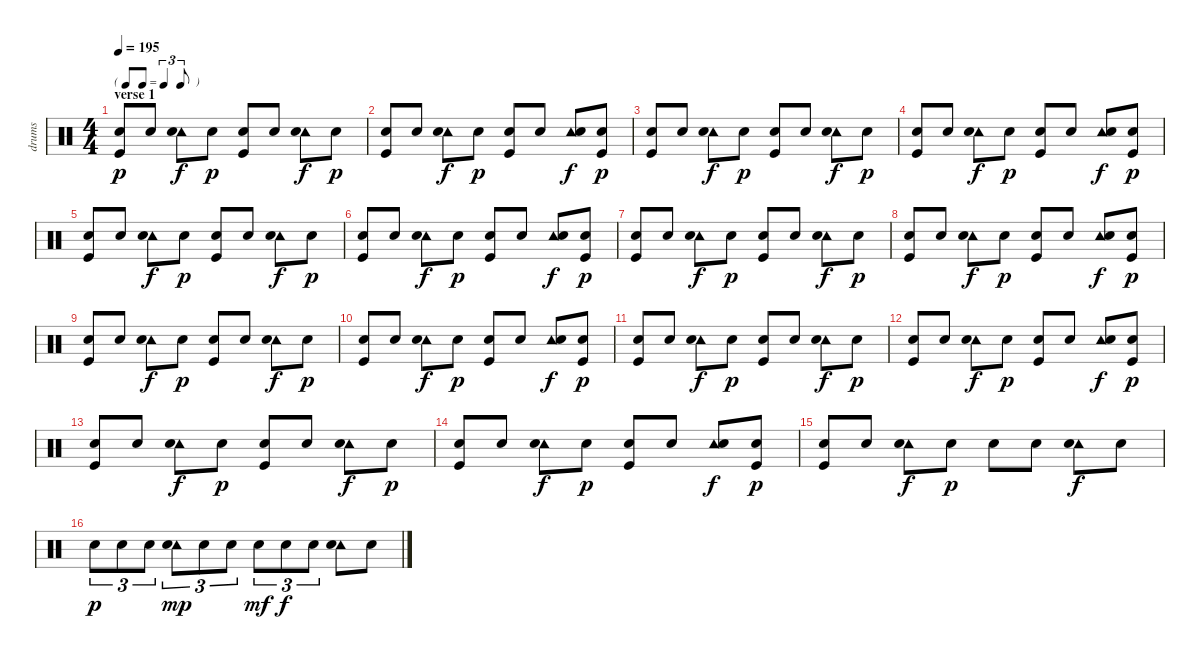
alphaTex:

\track ("drums" "drums") {instrument percussion}
\staff {score}
\articulation defaults
\ts (4 4)
\tf triplet8th
\section ("" "verse 1")
\tempo 195
\clef neutral
\ks c
("Snare (hit) 2" "Kick (hit)").8{dy p} "Snare (hit) 2".8 ("Tambourine (hit)" "Snare (hit) 2").8{dy f} "Snare (hit) 2".8{dy p} ("Snare (hit) 2" "Kick (hit)").8 "Snare (hit) 2".8 ("Tambourine (hit)" "Snare (hit) 2").8{dy f} "Snare (hit) 2".8{dy p} |
("Snare (hit) 2" "Kick (hit)").8 "Snare (hit) 2".8 ("Tambourine (hit)" "Snare (hit) 2").8{dy f} "Snare (hit) 2".8{dy p} ("Snare (hit) 2" "Kick (hit)").8 "Snare (hit) 2".8 ("Tambourine (hit)" "Snare (hit) 2").8{dy f} ("Snare (hit) 2" "Kick (hit)").8{dy p} |
("Snare (hit) 2" "Kick (hit)").8 "Snare (hit) 2".8 ("Tambourine (hit)" "Snare (hit) 2").8{dy f} "Snare (hit) 2".8{dy p} ("Snare (hit) 2" "Kick (hit)").8 "Snare (hit) 2".8 ("Tambourine (hit)" "Snare (hit) 2").8{dy f} "Snare (hit) 2".8{dy p} |
("Snare (hit) 2" "Kick (hit)").8 "Snare (hit) 2".8 ("Tambourine (hit)" "Snare (hit) 2").8{dy f} "Snare (hit) 2".8{dy p} ("Snare (hit) 2" "Kick (hit)").8 "Snare (hit) 2".8 ("Tambourine (hit)" "Snare (hit) 2").8{dy f} ("Snare (hit) 2" "Kick (hit)").8{dy p} |
("Snare (hit) 2" "Kick (hit)").8 "Snare (hit) 2".8 ("Tambourine (hit)" "Snare (hit) 2").8{dy f} "Snare (hit) 2".8{dy p} ("Snare (hit) 2" "Kick (hit)").8 "Snare (hit) 2".8 ("Tambourine (hit)" "Snare (hit) 2").8{dy f} "Snare (hit) 2".8{dy p} |
("Snare (hit) 2" "Kick (hit)").8 "Snare (hit) 2".8 ("Tambourine (hit)" "Snare (hit) 2").8{dy f} "Snare (hit) 2".8{dy p} ("Snare (hit) 2" "Kick (hit)").8 "Snare (hit) 2".8 ("Tambourine (hit)" "Snare (hit) 2").8{dy f} ("Snare (hit) 2" "Kick (hit)").8{dy p} |
("Snare (hit) 2" "Kick (hit)").8 "Snare (hit) 2".8 ("Tambourine (hit)" "Snare (hit) 2").8{dy f} "Snare (hit) 2".8{dy p} ("Snare (hit) 2" "Kick (hit)").8 "Snare (hit) 2".8 ("Tambourine (hit)" "Snare (hit) 2").8{dy f} "Snare (hit) 2".8{dy p} |
("Snare (hit) 2" "Kick (hit)").8 "Snare (hit) 2".8 ("Tambourine (hit)" "Snare (hit) 2").8{dy f} "Snare (hit) 2".8{dy p} ("Snare (hit) 2" "Kick (hit)").8 "Snare (hit) 2".8 ("Tambourine (hit)" "Snare (hit) 2").8{dy f} ("Snare (hit) 2" "Kick (hit)").8{dy p} |
("Snare (hit) 2" "Kick (hit)").8 "Snare (hit) 2".8 ("Tambourine (hit)" "Snare (hit) 2").8{dy f} "Snare (hit) 2".8{dy p} ("Snare (hit) 2" "Kick (hit)").8 "Snare (hit) 2".8 ("Tambourine (hit)" "Snare (hit) 2").8{dy f} "Snare (hit) 2".8{dy p} |
("Snare (hit) 2" "Kick (hit)").8 "Snare (hit) 2".8 ("Tambourine (hit)" "Snare (hit) 2").8{dy f} "Snare (hit) 2".8{dy p} ("Snare (hit) 2" "Kick (hit)").8 "Snare (hit) 2".8 ("Tambourine (hit)" "Snare (hit) 2").8{dy f} ("Snare (hit) 2" "Kick (hit)").8{dy p} |
("Snare (hit) 2" "Kick (hit)").8 "Snare (hit) 2".8 ("Tambourine (hit)" "Snare (hit) 2").8{dy f} "Snare (hit) 2".8{dy p} ("Snare (hit) 2" "Kick (hit)").8 "Snare (hit) 2".8 ("Tambourine (hit)" "Snare (hit) 2").8{dy f} "Snare (hit) 2".8{dy p} |
("Snare (hit) 2" "Kick (hit)").8 "Snare (hit) 2".8 ("Tambourine (hit)" "Snare (hit) 2").8{dy f} "Snare (hit) 2".8{dy p} ("Snare (hit) 2" "Kick (hit)").8 "Snare (hit) 2".8 ("Tambourine (hit)" "Snare (hit) 2").8{dy f} ("Snare (hit) 2" "Kick (hit)").8{dy p} |
("Snare (hit) 2" "Kick (hit)").8 "Snare (hit) 2".8 ("Tambourine (hit)" "Snare (hit) 2").8{dy f} "Snare (hit) 2".8{dy p} ("Snare (hit) 2" "Kick (hit)").8 "Snare (hit) 2".8 ("Tambourine (hit)" "Snare (hit) 2").8{dy f} "Snare (hit) 2".8{dy p} |
("Snare (hit) 2" "Kick (hit)").8 "Snare (hit) 2".8 ("Tambourine (hit)" "Snare (hit) 2").8{dy f} "Snare (hit) 2".8{dy p} ("Snare (hit) 2" "Kick (hit)").8 "Snare (hit) 2".8 ("Tambourine (hit)" "Snare (hit) 2").8{dy f} ("Snare (hit) 2" "Kick (hit)").8{dy p} |
("Snare (hit) 2" "Kick (hit)").8 "Snare (hit) 2".8 ("Tambourine (hit)" "Snare (hit) 2").8{dy f} "Snare (hit) 2".8{dy p} "Snare (hit) 2".8 "Snare (hit) 2".8 ("Tambourine (hit)" "Snare (hit) 2").8{dy f} "Snare (hit) 2".8 |
"Snare (hit) 2".8{tu (3 2) dy p} "Snare (hit) 2".8{tu (3 2)} "Snare (hit) 2".8{tu (3 2)} ("Tambourine (hit)" "Snare (hit) 2").8{tu (3 2) dy mp} "Snare (hit) 2".8{tu (3 2)} "Snare (hit) 2".8{tu (3 2)} "Snare (hit) 2".8{tu (3 2) dy mf} "Snare (hit) 2".8{tu (3 2) dy f} "Snare (hit) 2".8{tu (3 2)} ("Tambourine (hit)" "Snare (hit) 2").8 "Snare (hit) 2".8
